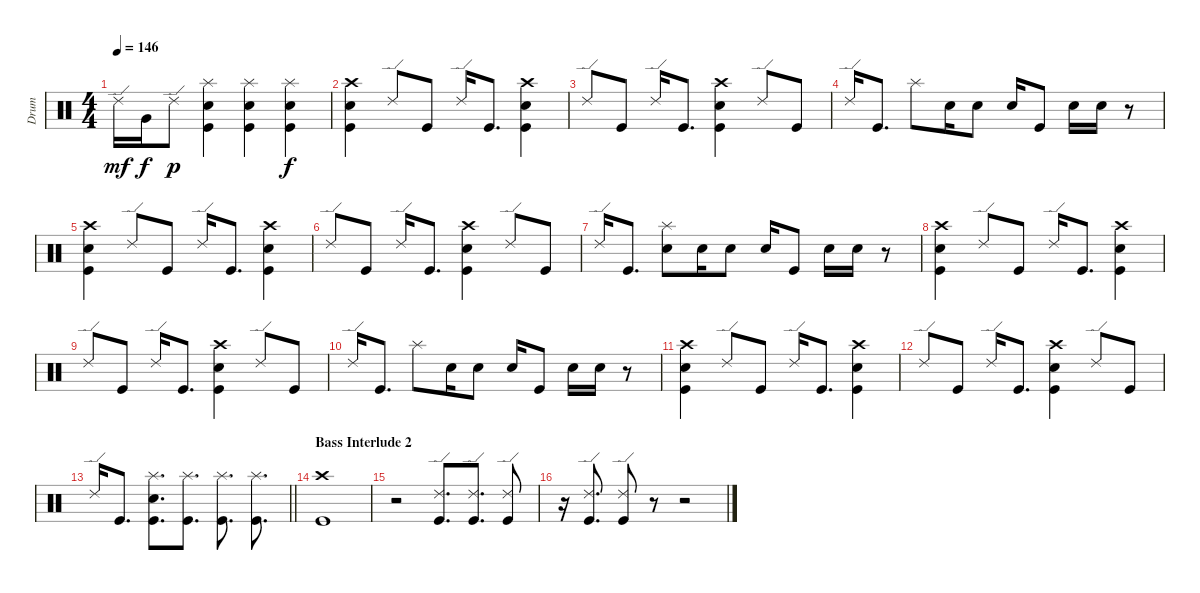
\track ("Drum" "Drum") {instrument percussion}
\staff {score}
\articulation defaults
\ts (4 4)
\tempo 146
\clef neutral
\ks c "Ride (edge) 2".16{dy mf} "Very Low Tom (hit)".16{dy f} "Ride (edge) 2".8{dy p}
("Splash (hit)" "Snare (hit) 2" "Kick (hit)").4 ("Splash (hit)" "Snare (hit) 2" "Kick (hit)").4 ("Splash (hit)" "Snare (hit) 2" "Kick (hit)").4{dy f} |
("Crash high (hit)" "Snare (hit) 2" "Kick (hit)").4 "Ride (edge) 2".8 "Kick (hit)".8 "Ride (edge) 2".16 "Kick (hit)".8{d} ("Crash high (hit)" "Snare (hit) 2" "Kick (hit)").4 |
"Ride (edge) 2".8 "Kick (hit)".8 "Ride (edge) 2".16 "Kick (hit)".8{d} ("Crash high (hit)" "Snare (hit) 2" "Kick (hit)").4 "Ride (edge) 2".8 "Kick (hit)".8 |
"Ride (edge) 2".16 "Kick (hit)".8{d} "Splash (hit)".8 "Snare (hit) 2".16 "Snare (hit) 2".8 "Snare (hit) 2".16 "Kick (hit)".8 "Snare (hit) 2".16 "Snare (hit) 2".16 r.8 |
("Crash high (hit)" "Snare (hit) 2" "Kick (hit)").4 "Ride (edge) 2".8 "Kick (hit)".8 "Ride (edge) 2".16 "Kick (hit)".8{d} ("Crash high (hit)" "Snare (hit) 2" "Kick (hit)").4 |
"Ride (edge) 2".8 "Kick (hit)".8 "Ride (edge) 2".16 "Kick (hit)".8{d} ("Crash high (hit)" "Snare (hit) 2" "Kick (hit)").4 "Ride (edge) 2".8 "Kick (hit)".8 |
"Ride (edge) 2".16 "Kick (hit)".8{d} ("Splash (hit)" "Snare (hit) 2").8 "Snare (hit) 2".16 "Snare (hit) 2".8 "Snare (hit) 2".16 "Kick (hit)".8 "Snare (hit) 2".16 "Snare (hit) 2".16 r.8 |
("Crash high (hit)" "Snare (hit) 2" "Kick (hit)").4 "Ride (edge) 2".8 "Kick (hit)".8 "Ride (edge) 2".16 "Kick (hit)".8{d} ("Crash high (hit)" "Snare (hit) 2" "Kick (hit)").4 |
"Ride (edge) 2".8 "Kick (hit)".8 "Ride (edge) 2".16 "Kick (hit)".8{d} ("Crash high (hit)" "Snare (hit) 2" "Kick (hit)").4 "Ride (edge) 2".8 "Kick (hit)".8 |
"Ride (edge) 2".16 "Kick (hit)".8{d} "Splash (hit)".8 "Snare (hit) 2".16 "Snare (hit) 2".8 "Snare (hit) 2".16 "Kick (hit)".8 "Snare (hit) 2".16 "Snare (hit) 2".16 r.8 |
("Crash high (hit)" "Snare (hit) 2" "Kick (hit)").4 "Ride (edge) 2".8 "Kick (hit)".8 "Ride (edge) 2".16 "Kick (hit)".8{d} ("Crash high (hit)" "Snare (hit) 2" "Kick (hit)").4 |
"Ride (edge) 2".8 "Kick (hit)".8 "Ride (edge) 2".16 "Kick (hit)".8{d} ("Crash high (hit)" "Snare (hit) 2" "Kick (hit)").4 "Ride (edge) 2".8 "Kick (hit)".8 |
\barLineRight lightlight "Ride (edge) 2".16 "Kick (hit)".8{d}
("Splash (hit)" "Snare (hit) 2" "Kick (hit)").8{d} ("Splash (hit)" "Kick (hit)").8{d} ("Splash (hit)" "Kick (hit)").8{d} ("Splash (hit)" "Kick (hit)").8{d} |
\section ("" "Bass Interlude 2")
("Crash high (hit)" "Kick (hit)").1 |
r.2 ("Ride (edge) 2" "Kick (hit)").8{d} ("Ride (edge) 2" "Kick (hit)").8{d} ("Ride (edge) 2" "Kick (hit)").8 |
r.16 ("Ride (edge) 2" "Kick (hit)").8{d} ("Ride (edge) 2" "Kick (hit)").8 r.8 r.2
